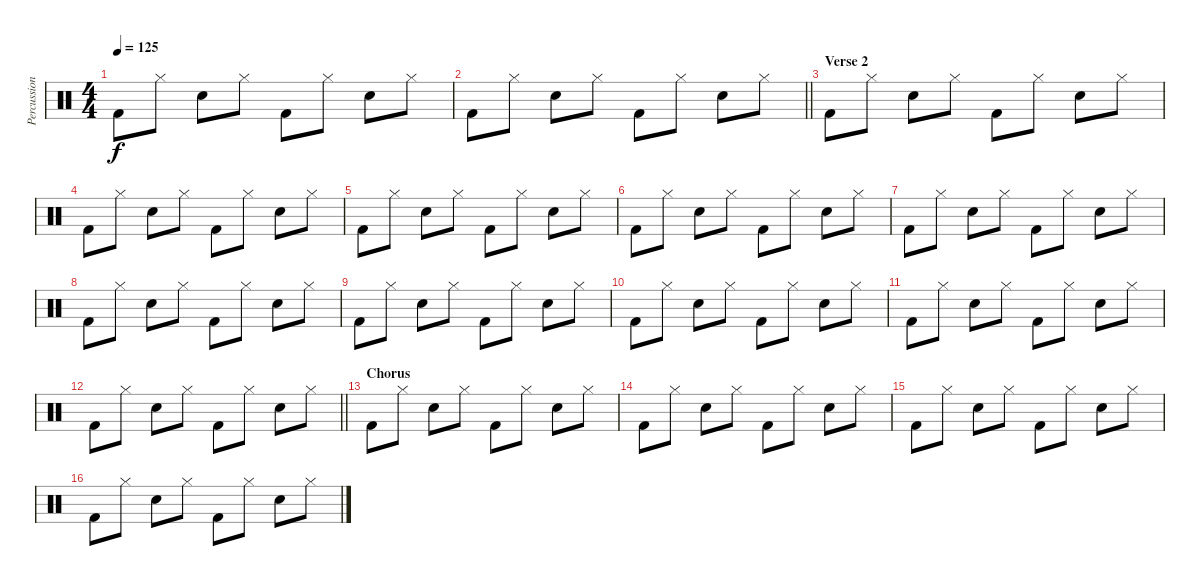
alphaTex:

\track ("Percussion" "Percussion") {instrument percussion}
\staff {score}
\articulation defaults
\ts (4 4)
\tempo 125
\clef neutral
\ks c "Kick (hit) 2".8{dy f} "Hi-Hat (closed)".8 "Snare (hit) 2".8 "Hi-Hat (closed)".8 "Kick (hit) 2".8 "Hi-Hat (closed)".8 "Snare (hit) 2".8 "Hi-Hat (closed)".8
|
\barLineRight lightlight "Kick (hit) 2".8 "Hi-Hat (closed)".8 "Snare (hit) 2".8 "Hi-Hat (closed)".8 "Kick (hit) 2".8 "Hi-Hat (closed)".8 "Snare (hit) 2".8 "Hi-Hat (closed)".8
|
\section ("" "Verse 2")
"Kick (hit) 2".8 "Hi-Hat (closed)".8 "Snare (hit) 2".8 "Hi-Hat (closed)".8 "Kick (hit) 2".8 "Hi-Hat (closed)".8 "Snare (hit) 2".8 "Hi-Hat (closed)".8 |
"Kick (hit) 2".8 "Hi-Hat (closed)".8 "Snare (hit) 2".8 "Hi-Hat (closed)".8 "Kick (hit) 2".8 "Hi-Hat (closed)".8 "Snare (hit) 2".8 "Hi-Hat (closed)".8 |
"Kick (hit) 2".8 "Hi-Hat (closed)".8 "Snare (hit) 2".8 "Hi-Hat (closed)".8 "Kick (hit) 2".8 "Hi-Hat (closed)".8 "Snare (hit) 2".8 "Hi-Hat (closed)".8 |
"Kick (hit) 2".8 "Hi-Hat (closed)".8 "Snare (hit) 2".8 "Hi-Hat (closed)".8 "Kick (hit) 2".8 "Hi-Hat (closed)".8 "Snare (hit) 2".8 "Hi-Hat (closed)".8 |
"Kick (hit) 2".8 "Hi-Hat (closed)".8 "Snare (hit) 2".8 "Hi-Hat (closed)".8 "Kick (hit) 2".8 "Hi-Hat (closed)".8 "Snare (hit) 2".8 "Hi-Hat (closed)".8 |
"Kick (hit) 2".8 "Hi-Hat (closed)".8 "Snare (hit) 2".8 "Hi-Hat (closed)".8 "Kick (hit) 2".8 "Hi-Hat (closed)".8 "Snare (hit) 2".8 "Hi-Hat (closed)".8 |
"Kick (hit) 2".8 "Hi-Hat (closed)".8 "Snare (hit) 2".8 "Hi-Hat (closed)".8 "Kick (hit) 2".8 "Hi-Hat (closed)".8 "Snare (hit) 2".8 "Hi-Hat (closed)".8 |
"Kick (hit) 2".8 "Hi-Hat (closed)".8 "Snare (hit) 2".8 "Hi-Hat (closed)".8 "Kick (hit) 2".8 "Hi-Hat (closed)".8 "Snare (hit) 2".8 "Hi-Hat (closed)".8 |
"Kick (hit) 2".8 "Hi-Hat (closed)".8 "Snare (hit) 2".8 "Hi-Hat (closed)".8 "Kick (hit) 2".8 "Hi-Hat (closed)".8 "Snare (hit) 2".8 "Hi-Hat (closed)".8 |
\barLineRight lightlight "Kick (hit) 2".8 "Hi-Hat (closed)".8 "Snare (hit) 2".8 "Hi-Hat (closed)".8 "Kick (hit) 2".8 "Hi-Hat (closed)".8 "Snare (hit) 2".8 "Hi-Hat (closed)".8
|
\section ("" "Chorus")
"Kick (hit) 2".8 "Hi-Hat (closed)".8 "Snare (hit) 2".8 "Hi-Hat (closed)".8 "Kick (hit) 2".8 "Hi-Hat (closed)".8 "Snare (hit) 2".8 "Hi-Hat (closed)".8 |
"Kick (hit) 2".8 "Hi-Hat (closed)".8 "Snare (hit) 2".8 "Hi-Hat (closed)".8 "Kick (hit) 2".8 "Hi-Hat (closed)".8 "Snare (hit) 2".8 "Hi-Hat (closed)".8 |
"Kick (hit) 2".8 "Hi-Hat (closed)".8 "Snare (hit) 2".8 "Hi-Hat (closed)".8 "Kick (hit) 2".8 "Hi-Hat (closed)".8 "Snare (hit) 2".8 "Hi-Hat (closed)".8 |
"Kick (hit) 2".8 "Hi-Hat (closed)".8 "Snare (hit) 2".8 "Hi-Hat (closed)".8 "Kick (hit) 2".8 "Hi-Hat (closed)".8 "Snare (hit) 2".8 "Hi-Hat (closed)".8
